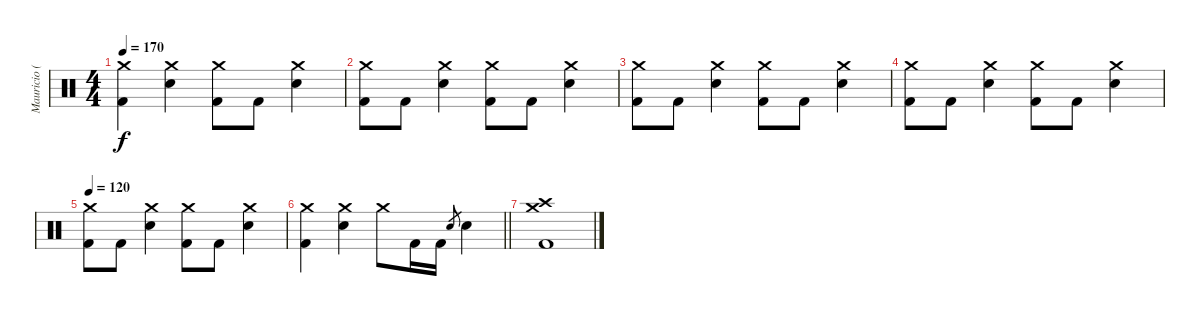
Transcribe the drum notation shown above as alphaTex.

\track ("Mauricio (Drum)" "Mauricio (") {instrument percussion}
\staff {score}
\articulation defaults
\ts (4 4)
\tempo 170
\clef neutral
\ks c
("Crash medium (hit)" "Kick (hit) 2").4{dy f} ("Crash medium (hit)" "Snare (hit) 2").4 ("Crash medium (hit)" "Kick (hit) 2").8 "Kick (hit) 2".8 ("Crash medium (hit)" "Snare (hit) 2").4 |
("Crash medium (hit)" "Kick (hit) 2").8 "Kick (hit) 2".8 ("Crash medium (hit)" "Snare (hit) 2").4 ("Crash medium (hit)" "Kick (hit) 2").8 "Kick (hit) 2".8 ("Crash medium (hit)" "Snare (hit) 2").4 |
("Crash medium (hit)" "Kick (hit) 2").8 "Kick (hit) 2".8 ("Crash medium (hit)" "Snare (hit) 2").4 ("Crash medium (hit)" "Kick (hit) 2").8 "Kick (hit) 2".8 ("Crash medium (hit)" "Snare (hit) 2").4 |
("Crash medium (hit)" "Kick (hit) 2").8 "Kick (hit) 2".8 ("Crash medium (hit)" "Snare (hit) 2").4 ("Crash medium (hit)" "Kick (hit) 2").8 "Kick (hit) 2".8 ("Crash medium (hit)" "Snare (hit) 2").4 |
\tempo 120
("Crash medium (hit)" "Kick (hit) 2").8 "Kick (hit) 2".8 ("Crash medium (hit)" "Snare (hit) 2").4 ("Crash medium (hit)" "Kick (hit) 2").8 "Kick (hit) 2".8 ("Crash medium (hit)" "Snare (hit) 2").4 |
\barLineRight lightlight
("Crash medium (hit)" "Kick (hit) 2").4 ("Crash medium (hit)" "Snare (hit) 2").4 "Crash medium (hit)".8 "Kick (hit) 2".16 "Kick (hit) 2".16 "Snare (hit) 2".8{gr} "Snare (hit) 2".4 |
("Crash medium (hit)" "Crash high (hit)" "Kick (hit) 2").1
